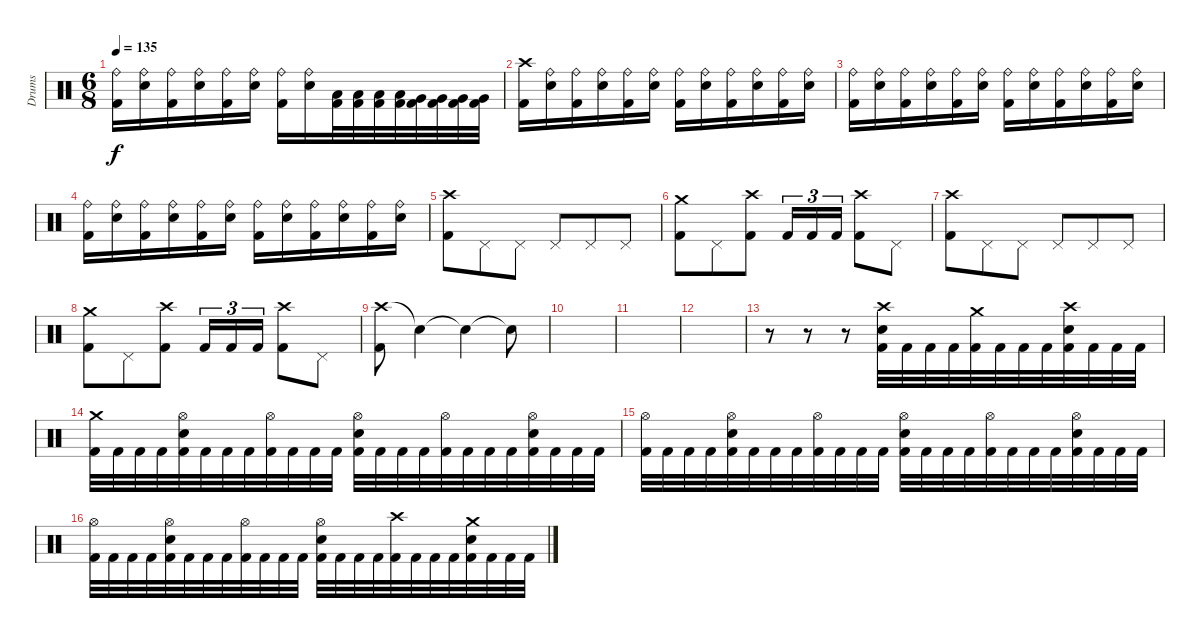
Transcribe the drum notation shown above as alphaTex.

\track ("Drums" "Drums") {instrument percussion}
\staff {score}
\articulation defaults
\ts (6 8)
\tempo 135
\clef neutral
\ks c
("Ride (bell)" "Kick (hit) 2").16{dy f} ("Ride (bell)" "Electric Snare (hit)").16 ("Ride (bell)" "Kick (hit) 2").16 ("Ride (bell)" "Electric Snare (hit)").16 ("Ride (bell)" "Kick (hit) 2").16 ("Ride (bell)" "Electric Snare (hit)").16 ("Ride (bell)" "Kick (hit) 2").16 ("Ride (bell)" "Electric Snare (hit)").16 ("Kick (hit) 2" "Low Tom (hit)").32 ("Kick (hit) 2" "Low Tom (hit)").32 ("Kick (hit) 2" "Low Tom (hit)").32 ("Kick (hit) 2" "Low Tom (hit)").32 ("Kick (hit) 2" "Very Low Tom (hit)").32 ("Kick (hit) 2" "Very Low Tom (hit)").32 ("Kick (hit) 2" "Very Low Tom (hit)").32 ("Kick (hit) 2" "Very Low Tom (hit)").32 |
("Crash high (hit)" "Kick (hit) 2").16 ("Ride (bell)" "Electric Snare (hit)").16 ("Ride (bell)" "Kick (hit) 2").16 ("Ride (bell)" "Electric Snare (hit)").16 ("Ride (bell)" "Kick (hit) 2").16 ("Ride (bell)" "Electric Snare (hit)").16 ("Ride (bell)" "Kick (hit) 2").16 ("Ride (bell)" "Electric Snare (hit)").16 ("Ride (bell)" "Kick (hit) 2").16 ("Ride (bell)" "Electric Snare (hit)").16 ("Ride (bell)" "Kick (hit) 2").16 ("Ride (bell)" "Electric Snare (hit)").16 |
("Ride (bell)" "Kick (hit) 2").16 ("Ride (bell)" "Electric Snare (hit)").16 ("Ride (bell)" "Kick (hit) 2").16 ("Ride (bell)" "Electric Snare (hit)").16 ("Ride (bell)" "Kick (hit) 2").16 ("Ride (bell)" "Electric Snare (hit)").16 ("Ride (bell)" "Kick (hit) 2").16 ("Ride (bell)" "Electric Snare (hit)").16 ("Ride (bell)" "Kick (hit) 2").16 ("Ride (bell)" "Electric Snare (hit)").16 ("Ride (bell)" "Kick (hit) 2").16 ("Ride (bell)" "Electric Snare (hit)").16 |
("Ride (bell)" "Kick (hit) 2").16 ("Ride (bell)" "Electric Snare (hit)").16 ("Ride (bell)" "Kick (hit) 2").16 ("Ride (bell)" "Electric Snare (hit)").16 ("Ride (bell)" "Kick (hit) 2").16 ("Ride (bell)" "Electric Snare (hit)").16 ("Ride (bell)" "Kick (hit) 2").16 ("Ride (bell)" "Electric Snare (hit)").16 ("Ride (bell)" "Kick (hit) 2").16 ("Ride (bell)" "Electric Snare (hit)").16 ("Ride (bell)" "Kick (hit) 2").16 ("Ride (bell)" "Electric Snare (hit)").16 |
("Crash high (hit)" "Kick (hit) 2").8 "Pedal Hi-Hat (hit)".8 "Pedal Hi-Hat (hit)".8 "Pedal Hi-Hat (hit)".8 "Pedal Hi-Hat (hit)".8 "Pedal Hi-Hat (hit)".8 |
("Crash medium (hit)" "Kick (hit) 2").8 "Pedal Hi-Hat (hit)".8 ("Crash high (hit)" "Kick (hit) 2").8 "Kick (hit) 2".16{tu (3 2)} "Kick (hit) 2".16{tu (3 2)} "Kick (hit) 2".16{tu (3 2)} ("Crash high (hit)" "Kick (hit) 2").8 "Pedal Hi-Hat (hit)".8 |
("Crash high (hit)" "Kick (hit) 2").8 "Pedal Hi-Hat (hit)".8 "Pedal Hi-Hat (hit)".8 "Pedal Hi-Hat (hit)".8 "Pedal Hi-Hat (hit)".8 "Pedal Hi-Hat (hit)".8 |
("Crash medium (hit)" "Kick (hit) 2").8 "Pedal Hi-Hat (hit)".8 ("Crash high (hit)" "Kick (hit) 2").8 "Kick (hit) 2".16{tu (3 2)} "Kick (hit) 2".16{tu (3 2)} "Kick (hit) 2".16{tu (3 2)} ("Crash high (hit)" "Kick (hit) 2").8 "Pedal Hi-Hat (hit)".8 |
("Crash high (hit)" "Kick (hit) 2").8 "Snare (hit)"{t}.4 "Snare (hit)"{t}.4 "Snare (hit)"{t}.8 |
|
|
|
r.8 r.8 r.8 ("Crash high (hit)" "Electric Snare (hit)" "Kick (hit) 2").32 "Kick (hit) 2".32 "Kick (hit) 2".32 "Kick (hit) 2".32 ("Crash medium (hit)" "Kick (hit) 2").32 "Kick (hit) 2".32 "Kick (hit) 2".32 "Kick (hit) 2".32 ("Crash high (hit)" "Electric Snare (hit)" "Kick (hit) 2").32 "Kick (hit) 2".32 "Kick (hit) 2".32 "Kick (hit) 2".32 |
("Crash medium (hit)" "Kick (hit) 2").32 "Kick (hit) 2".32 "Kick (hit) 2".32 "Kick (hit) 2".32 ("Hi-Hat (open)" "Electric Snare (hit)" "Kick (hit) 2").32 "Kick (hit) 2".32 "Kick (hit) 2".32 "Kick (hit) 2".32 ("Hi-Hat (open)" "Kick (hit) 2").32 "Kick (hit) 2".32 "Kick (hit) 2".32 "Kick (hit) 2".32 ("Hi-Hat (open)" "Electric Snare (hit)" "Kick (hit) 2").32 "Kick (hit) 2".32 "Kick (hit) 2".32 "Kick (hit) 2".32 ("Hi-Hat (open)" "Kick (hit) 2").32 "Kick (hit) 2".32 "Kick (hit) 2".32 "Kick (hit) 2".32 ("Hi-Hat (open)" "Electric Snare (hit)" "Kick (hit) 2").32 "Kick (hit) 2".32 "Kick (hit) 2".32 "Kick (hit) 2".32 |
("Hi-Hat (open)" "Kick (hit) 2").32 "Kick (hit) 2".32 "Kick (hit) 2".32 "Kick (hit) 2".32 ("Hi-Hat (open)" "Electric Snare (hit)" "Kick (hit) 2").32 "Kick (hit) 2".32 "Kick (hit) 2".32 "Kick (hit) 2".32 ("Hi-Hat (open)" "Kick (hit) 2").32 "Kick (hit) 2".32 "Kick (hit) 2".32 "Kick (hit) 2".32 ("Hi-Hat (open)" "Electric Snare (hit)" "Kick (hit) 2").32 "Kick (hit) 2".32 "Kick (hit) 2".32 "Kick (hit) 2".32 ("Hi-Hat (open)" "Kick (hit) 2").32 "Kick (hit) 2".32 "Kick (hit) 2".32 "Kick (hit) 2".32 ("Hi-Hat (open)" "Electric Snare (hit)" "Kick (hit) 2").32 "Kick (hit) 2".32 "Kick (hit) 2".32 "Kick (hit) 2".32 |
("Hi-Hat (open)" "Kick (hit) 2").32 "Kick (hit) 2".32 "Kick (hit) 2".32 "Kick (hit) 2".32 ("Hi-Hat (open)" "Electric Snare (hit)" "Kick (hit) 2").32 "Kick (hit) 2".32 "Kick (hit) 2".32 "Kick (hit) 2".32 ("Hi-Hat (open)" "Kick (hit) 2").32 "Kick (hit) 2".32 "Kick (hit) 2".32 "Kick (hit) 2".32 ("Hi-Hat (open)" "Electric Snare (hit)" "Kick (hit) 2").32 "Kick (hit) 2".32 "Kick (hit) 2".32 "Kick (hit) 2".32 ("Crash high (hit)" "Kick (hit) 2").32 "Kick (hit) 2".32 "Kick (hit) 2".32 "Kick (hit) 2".32 ("Crash medium (hit)" "Electric Snare (hit)" "Kick (hit) 2").32 "Kick (hit) 2".32 "Kick (hit) 2".32 "Kick (hit) 2".32
